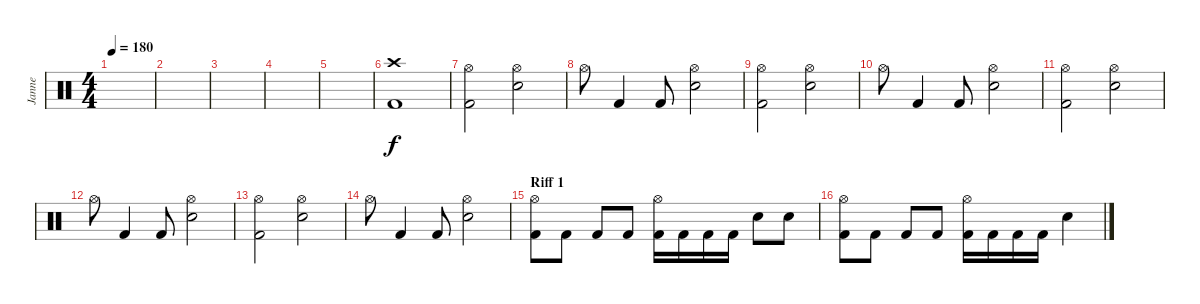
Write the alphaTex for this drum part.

\track ("Janne" "Janne") {instrument percussion}
\staff {score}
\articulation defaults
\ts (4 4)
\tempo 180
\clef neutral
\ks c
|
|
|
|
|
("Crash high (hit)" "Kick (hit) 2").1 |
("Hi-Hat (open)" "Kick (hit) 2").2 ("Hi-Hat (open)" "Electric Snare (hit)").2 |
"Hi-Hat (open)".8 "Kick (hit) 2".4 "Kick (hit) 2".8 ("Hi-Hat (open)" "Electric Snare (hit)").2 |
("Hi-Hat (open)" "Kick (hit) 2").2 ("Hi-Hat (open)" "Electric Snare (hit)").2 |
"Hi-Hat (open)".8 "Kick (hit) 2".4 "Kick (hit) 2".8 ("Hi-Hat (open)" "Electric Snare (hit)").2 |
("Hi-Hat (open)" "Kick (hit) 2").2 ("Hi-Hat (open)" "Electric Snare (hit)").2 |
"Hi-Hat (open)".8 "Kick (hit) 2".4 "Kick (hit) 2".8 ("Hi-Hat (open)" "Electric Snare (hit)").2 |
("Hi-Hat (open)" "Kick (hit) 2").2 ("Hi-Hat (open)" "Electric Snare (hit)").2 |
"Hi-Hat (open)".8 "Kick (hit) 2".4 "Kick (hit) 2".8 ("Hi-Hat (open)" "Electric Snare (hit)").2 |
\section ("" "Riff 1")
("Hi-Hat (open)" "Kick (hit) 2").8 "Kick (hit) 2".8 "Kick (hit) 2".8 "Kick (hit) 2".8 ("Hi-Hat (open)" "Kick (hit) 2").16 "Kick (hit) 2".16 "Kick (hit) 2".16 "Kick (hit) 2".16 "Electric Snare (hit)".8 "Electric Snare (hit)".8 |
("Hi-Hat (open)" "Kick (hit) 2").8 "Kick (hit) 2".8 "Kick (hit) 2".8 "Kick (hit) 2".8 ("Hi-Hat (open)" "Kick (hit) 2").16 "Kick (hit) 2".16 "Kick (hit) 2".16 "Kick (hit) 2".16 "Electric Snare (hit)".4
